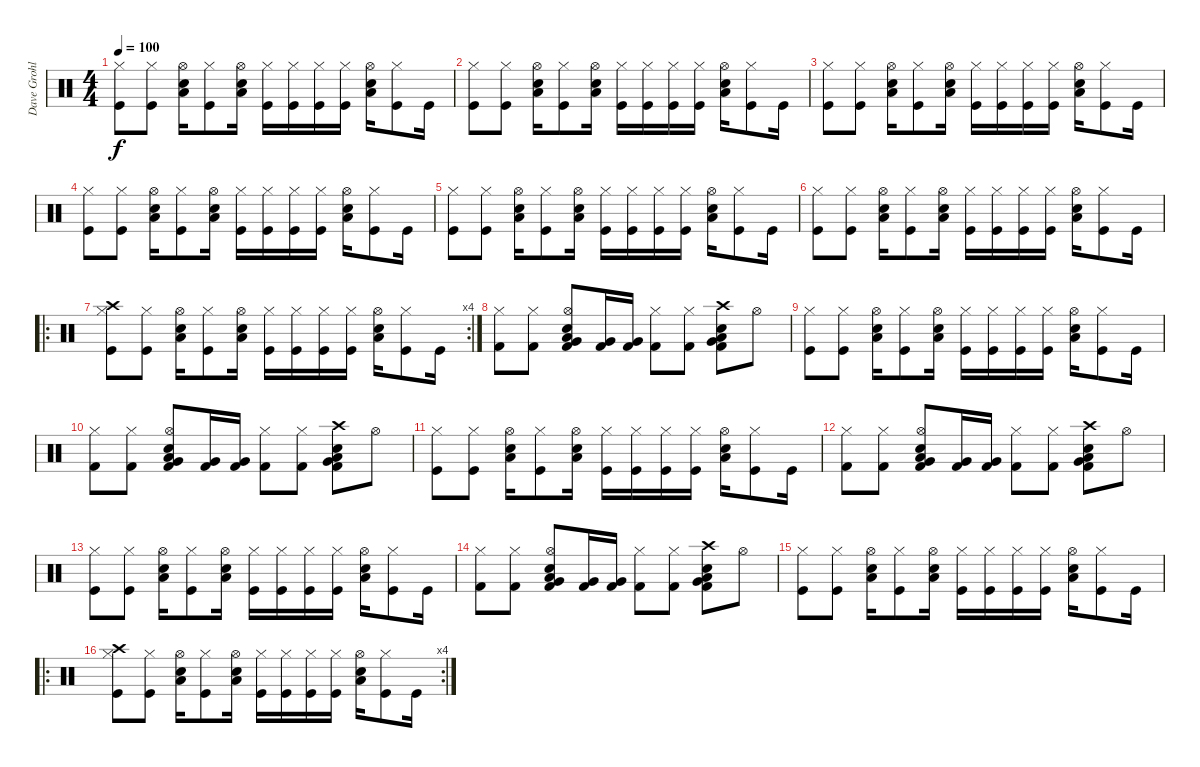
\track ("Dave Grohl" "Dave Grohl") {instrument percussion}
\staff {score}
\articulation defaults
\ts (4 4)
\tempo 100
\clef neutral
\ks c
("Kick (hit)" "Hi-Hat (closed)").8{dy f} ("Kick (hit)" "Hi-Hat (closed)").8 ("Snare (hit) 2" "Low Tom (hit)" "Hi-Hat (open)").16 ("Kick (hit)" "Hi-Hat (closed)").8 ("Snare (hit) 2" "Low Tom (hit)" "Hi-Hat (open)").16 ("Kick (hit)" "Hi-Hat (closed)").16 ("Kick (hit)" "Hi-Hat (closed)").16 ("Kick (hit)" "Hi-Hat (closed)").16 ("Kick (hit)" "Hi-Hat (closed)").16 ("Snare (hit) 2" "Low Tom (hit)" "Hi-Hat (open)").16 ("Kick (hit)" "Hi-Hat (closed)").8 "Kick (hit)".16 |
("Kick (hit)" "Hi-Hat (closed)").8 ("Kick (hit)" "Hi-Hat (closed)").8 ("Snare (hit) 2" "Low Tom (hit)" "Hi-Hat (open)").16 ("Kick (hit)" "Hi-Hat (closed)").8 ("Snare (hit) 2" "Low Tom (hit)" "Hi-Hat (open)").16 ("Kick (hit)" "Hi-Hat (closed)").16 ("Kick (hit)" "Hi-Hat (closed)").16 ("Kick (hit)" "Hi-Hat (closed)").16 ("Kick (hit)" "Hi-Hat (closed)").16 ("Snare (hit) 2" "Low Tom (hit)" "Hi-Hat (open)").16 ("Kick (hit)" "Hi-Hat (closed)").8 "Kick (hit)".16 |
("Kick (hit)" "Hi-Hat (closed)").8 ("Kick (hit)" "Hi-Hat (closed)").8 ("Snare (hit) 2" "Low Tom (hit)" "Hi-Hat (open)").16 ("Kick (hit)" "Hi-Hat (closed)").8 ("Snare (hit) 2" "Low Tom (hit)" "Hi-Hat (open)").16 ("Kick (hit)" "Hi-Hat (closed)").16 ("Kick (hit)" "Hi-Hat (closed)").16 ("Kick (hit)" "Hi-Hat (closed)").16 ("Kick (hit)" "Hi-Hat (closed)").16 ("Snare (hit) 2" "Low Tom (hit)" "Hi-Hat (open)").16 ("Kick (hit)" "Hi-Hat (closed)").8 "Kick (hit)".16 |
("Kick (hit)" "Hi-Hat (closed)").8 ("Kick (hit)" "Hi-Hat (closed)").8 ("Snare (hit) 2" "Low Tom (hit)" "Hi-Hat (open)").16 ("Kick (hit)" "Hi-Hat (closed)").8 ("Snare (hit) 2" "Low Tom (hit)" "Hi-Hat (open)").16 ("Kick (hit)" "Hi-Hat (closed)").16 ("Kick (hit)" "Hi-Hat (closed)").16 ("Kick (hit)" "Hi-Hat (closed)").16 ("Kick (hit)" "Hi-Hat (closed)").16 ("Snare (hit) 2" "Low Tom (hit)" "Hi-Hat (open)").16 ("Kick (hit)" "Hi-Hat (closed)").8 "Kick (hit)".16 |
("Kick (hit)" "Hi-Hat (closed)").8 ("Kick (hit)" "Hi-Hat (closed)").8 ("Snare (hit) 2" "Low Tom (hit)" "Hi-Hat (open)").16 ("Kick (hit)" "Hi-Hat (closed)").8 ("Snare (hit) 2" "Low Tom (hit)" "Hi-Hat (open)").16 ("Kick (hit)" "Hi-Hat (closed)").16 ("Kick (hit)" "Hi-Hat (closed)").16 ("Kick (hit)" "Hi-Hat (closed)").16 ("Kick (hit)" "Hi-Hat (closed)").16 ("Snare (hit) 2" "Low Tom (hit)" "Hi-Hat (open)").16 ("Kick (hit)" "Hi-Hat (closed)").8 "Kick (hit)".16 |
("Kick (hit)" "Hi-Hat (closed)").8 ("Kick (hit)" "Hi-Hat (closed)").8 ("Snare (hit) 2" "Low Tom (hit)" "Hi-Hat (open)").16 ("Kick (hit)" "Hi-Hat (closed)").8 ("Snare (hit) 2" "Low Tom (hit)" "Hi-Hat (open)").16 ("Kick (hit)" "Hi-Hat (closed)").16 ("Kick (hit)" "Hi-Hat (closed)").16 ("Kick (hit)" "Hi-Hat (closed)").16 ("Kick (hit)" "Hi-Hat (closed)").16 ("Snare (hit) 2" "Low Tom (hit)" "Hi-Hat (open)").16 ("Kick (hit)" "Hi-Hat (closed)").8 "Kick (hit)".16 |
\ro
\rc 4
("Crash high (hit)" "Kick (hit)" "Hi-Hat (closed)").8 ("Kick (hit)" "Hi-Hat (closed)").8 ("Snare (hit) 2" "Low Tom (hit)" "Hi-Hat (open)").16 ("Kick (hit)" "Hi-Hat (closed)").8 ("Snare (hit) 2" "Low Tom (hit)" "Hi-Hat (open)").16 ("Kick (hit)" "Hi-Hat (closed)").16 ("Kick (hit)" "Hi-Hat (closed)").16 ("Kick (hit)" "Hi-Hat (closed)").16 ("Kick (hit)" "Hi-Hat (closed)").16 ("Snare (hit) 2" "Low Tom (hit)" "Hi-Hat (open)").16 ("Kick (hit)" "Hi-Hat (closed)").8 "Kick (hit)".16 |
("Hi-Hat (closed)" "Kick (hit) 2").8 ("Hi-Hat (closed)" "Kick (hit) 2").8 ("Snare (hit) 2" "Low Tom (hit)" "Hi-Hat (open)" "Very Low Tom (hit)" "Kick (hit) 2").8 ("Very Low Tom (hit)" "Kick (hit) 2").16 ("Very Low Tom (hit)" "Kick (hit) 2").16 ("Hi-Hat (closed)" "Kick (hit) 2").8 ("Hi-Hat (closed)" "Kick (hit) 2").8 ("Snare (hit) 2" "Low Tom (hit)" "Crash high (hit)" "Very Low Tom (hit)" "Kick (hit) 2").8 "Hi-Hat (open)".8 |
("Kick (hit)" "Hi-Hat (closed)").8 ("Kick (hit)" "Hi-Hat (closed)").8 ("Snare (hit) 2" "Low Tom (hit)" "Hi-Hat (open)").16 ("Kick (hit)" "Hi-Hat (closed)").8 ("Snare (hit) 2" "Low Tom (hit)" "Hi-Hat (open)").16 ("Kick (hit)" "Hi-Hat (closed)").16 ("Kick (hit)" "Hi-Hat (closed)").16 ("Kick (hit)" "Hi-Hat (closed)").16 ("Kick (hit)" "Hi-Hat (closed)").16 ("Snare (hit) 2" "Low Tom (hit)" "Hi-Hat (open)").16 ("Kick (hit)" "Hi-Hat (closed)").8 "Kick (hit)".16 |
("Hi-Hat (closed)" "Kick (hit) 2").8 ("Hi-Hat (closed)" "Kick (hit) 2").8 ("Snare (hit) 2" "Low Tom (hit)" "Hi-Hat (open)" "Very Low Tom (hit)" "Kick (hit) 2").8 ("Very Low Tom (hit)" "Kick (hit) 2").16 ("Very Low Tom (hit)" "Kick (hit) 2").16 ("Hi-Hat (closed)" "Kick (hit) 2").8 ("Hi-Hat (closed)" "Kick (hit) 2").8 ("Snare (hit) 2" "Low Tom (hit)" "Crash high (hit)" "Very Low Tom (hit)" "Kick (hit) 2").8 "Hi-Hat (open)".8 |
("Kick (hit)" "Hi-Hat (closed)").8 ("Kick (hit)" "Hi-Hat (closed)").8 ("Snare (hit) 2" "Low Tom (hit)" "Hi-Hat (open)").16 ("Kick (hit)" "Hi-Hat (closed)").8 ("Snare (hit) 2" "Low Tom (hit)" "Hi-Hat (open)").16 ("Kick (hit)" "Hi-Hat (closed)").16 ("Kick (hit)" "Hi-Hat (closed)").16 ("Kick (hit)" "Hi-Hat (closed)").16 ("Kick (hit)" "Hi-Hat (closed)").16 ("Snare (hit) 2" "Low Tom (hit)" "Hi-Hat (open)").16 ("Kick (hit)" "Hi-Hat (closed)").8 "Kick (hit)".16 |
("Hi-Hat (closed)" "Kick (hit) 2").8 ("Hi-Hat (closed)" "Kick (hit) 2").8 ("Snare (hit) 2" "Low Tom (hit)" "Hi-Hat (open)" "Very Low Tom (hit)" "Kick (hit) 2").8 ("Very Low Tom (hit)" "Kick (hit) 2").16 ("Very Low Tom (hit)" "Kick (hit) 2").16 ("Hi-Hat (closed)" "Kick (hit) 2").8 ("Hi-Hat (closed)" "Kick (hit) 2").8 ("Snare (hit) 2" "Low Tom (hit)" "Crash high (hit)" "Very Low Tom (hit)" "Kick (hit) 2").8 "Hi-Hat (open)".8 |
("Kick (hit)" "Hi-Hat (closed)").8 ("Kick (hit)" "Hi-Hat (closed)").8 ("Snare (hit) 2" "Low Tom (hit)" "Hi-Hat (open)").16 ("Kick (hit)" "Hi-Hat (closed)").8 ("Snare (hit) 2" "Low Tom (hit)" "Hi-Hat (open)").16 ("Kick (hit)" "Hi-Hat (closed)").16 ("Kick (hit)" "Hi-Hat (closed)").16 ("Kick (hit)" "Hi-Hat (closed)").16 ("Kick (hit)" "Hi-Hat (closed)").16 ("Snare (hit) 2" "Low Tom (hit)" "Hi-Hat (open)").16 ("Kick (hit)" "Hi-Hat (closed)").8 "Kick (hit)".16 |
("Hi-Hat (closed)" "Kick (hit) 2").8 ("Hi-Hat (closed)" "Kick (hit) 2").8 ("Snare (hit) 2" "Low Tom (hit)" "Hi-Hat (open)" "Very Low Tom (hit)" "Kick (hit) 2").8 ("Very Low Tom (hit)" "Kick (hit) 2").16 ("Very Low Tom (hit)" "Kick (hit) 2").16 ("Hi-Hat (closed)" "Kick (hit) 2").8 ("Hi-Hat (closed)" "Kick (hit) 2").8 ("Snare (hit) 2" "Low Tom (hit)" "Crash high (hit)" "Very Low Tom (hit)" "Kick (hit) 2").8 "Hi-Hat (open)".8 |
("Kick (hit)" "Hi-Hat (closed)").8 ("Kick (hit)" "Hi-Hat (closed)").8 ("Snare (hit) 2" "Low Tom (hit)" "Hi-Hat (open)").16 ("Kick (hit)" "Hi-Hat (closed)").8 ("Snare (hit) 2" "Low Tom (hit)" "Hi-Hat (open)").16 ("Kick (hit)" "Hi-Hat (closed)").16 ("Kick (hit)" "Hi-Hat (closed)").16 ("Kick (hit)" "Hi-Hat (closed)").16 ("Kick (hit)" "Hi-Hat (closed)").16 ("Snare (hit) 2" "Low Tom (hit)" "Hi-Hat (open)").16 ("Kick (hit)" "Hi-Hat (closed)").8 "Kick (hit)".16 |
\ro
\rc 4
("Crash high (hit)" "Kick (hit)" "Hi-Hat (closed)").8 ("Kick (hit)" "Hi-Hat (closed)").8 ("Snare (hit) 2" "Low Tom (hit)" "Hi-Hat (open)").16 ("Kick (hit)" "Hi-Hat (closed)").8 ("Snare (hit) 2" "Low Tom (hit)" "Hi-Hat (open)").16 ("Kick (hit)" "Hi-Hat (closed)").16 ("Kick (hit)" "Hi-Hat (closed)").16 ("Kick (hit)" "Hi-Hat (closed)").16 ("Kick (hit)" "Hi-Hat (closed)").16 ("Snare (hit) 2" "Low Tom (hit)" "Hi-Hat (open)").16 ("Kick (hit)" "Hi-Hat (closed)").8 "Kick (hit)".16
